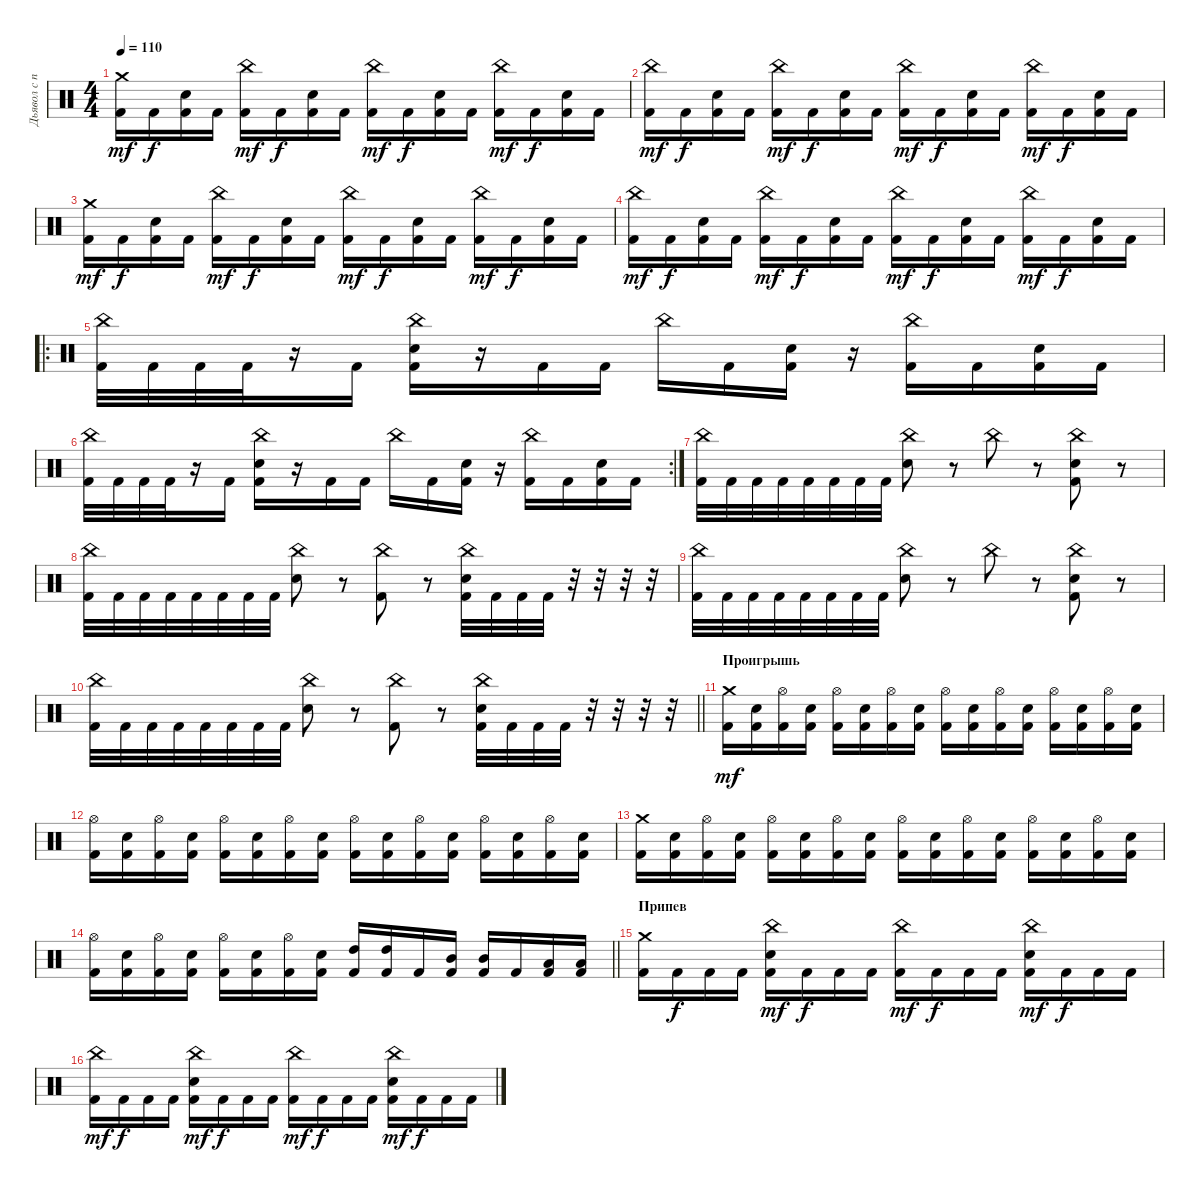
\track ("Дьявол с палками" "Дьявол с п") {instrument percussion}
\staff {score}
\articulation defaults
\ts (4 4)
\tempo 110
\clef neutral
\ks c
("Kick (hit) 2" "Crash medium (hit)").16{dy mf} "Kick (hit) 2".16{dy f} ("Kick (hit) 2" "Snare (hit) 2").16 "Kick (hit) 2".16 ("Kick (hit) 2" "China (hit)").16{dy mf} "Kick (hit) 2".16{dy f} ("Kick (hit) 2" "Snare (hit) 2").16 "Kick (hit) 2".16 ("Kick (hit) 2" "China (hit)").16{dy mf} "Kick (hit) 2".16{dy f} ("Kick (hit) 2" "Snare (hit) 2").16 "Kick (hit) 2".16 ("Kick (hit) 2" "China (hit)").16{dy mf} "Kick (hit) 2".16{dy f} ("Kick (hit) 2" "Snare (hit) 2").16 "Kick (hit) 2".16 |
("Kick (hit) 2" "China (hit)").16{dy mf} "Kick (hit) 2".16{dy f} ("Kick (hit) 2" "Snare (hit) 2").16 "Kick (hit) 2".16 ("Kick (hit) 2" "China (hit)").16{dy mf} "Kick (hit) 2".16{dy f} ("Kick (hit) 2" "Snare (hit) 2").16 "Kick (hit) 2".16 ("Kick (hit) 2" "China (hit)").16{dy mf} "Kick (hit) 2".16{dy f} ("Kick (hit) 2" "Snare (hit) 2").16 "Kick (hit) 2".16 ("Kick (hit) 2" "China (hit)").16{dy mf} "Kick (hit) 2".16{dy f} ("Kick (hit) 2" "Snare (hit) 2").16 "Kick (hit) 2".16 |
("Kick (hit) 2" "Crash medium (hit)").16{dy mf} "Kick (hit) 2".16{dy f} ("Kick (hit) 2" "Snare (hit) 2").16 "Kick (hit) 2".16 ("Kick (hit) 2" "China (hit)").16{dy mf} "Kick (hit) 2".16{dy f} ("Kick (hit) 2" "Snare (hit) 2").16 "Kick (hit) 2".16 ("Kick (hit) 2" "China (hit)").16{dy mf} "Kick (hit) 2".16{dy f} ("Kick (hit) 2" "Snare (hit) 2").16 "Kick (hit) 2".16 ("Kick (hit) 2" "China (hit)").16{dy mf} "Kick (hit) 2".16{dy f} ("Kick (hit) 2" "Snare (hit) 2").16 "Kick (hit) 2".16 |
("Kick (hit) 2" "China (hit)").16{dy mf} "Kick (hit) 2".16{dy f} ("Kick (hit) 2" "Snare (hit) 2").16 "Kick (hit) 2".16 ("Kick (hit) 2" "China (hit)").16{dy mf} "Kick (hit) 2".16{dy f} ("Kick (hit) 2" "Snare (hit) 2").16 "Kick (hit) 2".16 ("Kick (hit) 2" "China (hit)").16{dy mf} "Kick (hit) 2".16{dy f} ("Kick (hit) 2" "Snare (hit) 2").16 "Kick (hit) 2".16 ("Kick (hit) 2" "China (hit)").16{dy mf} "Kick (hit) 2".16{dy f} ("Kick (hit) 2" "Snare (hit) 2").16 "Kick (hit) 2".16 |
\ro
("Kick (hit) 2" "China (hit)").32 "Kick (hit) 2".32 "Kick (hit) 2".32 "Kick (hit) 2".32 r.16 "Kick (hit) 2".16 ("Kick (hit) 2" "Snare (hit) 2" "China (hit)").16 r.16 "Kick (hit) 2".16 "Kick (hit) 2".16 "China (hit)".16 "Kick (hit) 2".16 ("Kick (hit) 2" "Snare (hit) 2").16 r.16 ("Kick (hit) 2" "China (hit)").16 "Kick (hit) 2".16 ("Kick (hit) 2" "Snare (hit) 2").16 "Kick (hit) 2".16 |
\rc 2
("Kick (hit) 2" "China (hit)").32 "Kick (hit) 2".32 "Kick (hit) 2".32 "Kick (hit) 2".32 r.16 "Kick (hit) 2".16 ("Kick (hit) 2" "Snare (hit) 2" "China (hit)").16 r.16 "Kick (hit) 2".16 "Kick (hit) 2".16 "China (hit)".16 "Kick (hit) 2".16 ("Kick (hit) 2" "Snare (hit) 2").16 r.16 ("Kick (hit) 2" "China (hit)").16 "Kick (hit) 2".16 ("Kick (hit) 2" "Snare (hit) 2").16 "Kick (hit) 2".16 |
("Kick (hit) 2" "China (hit)").32 "Kick (hit) 2".32 "Kick (hit) 2".32 "Kick (hit) 2".32 "Kick (hit) 2".32 "Kick (hit) 2".32 "Kick (hit) 2".32 "Kick (hit) 2".32 ("Snare (hit) 2" "China (hit)").8 r.8 "China (hit)".8 r.8 ("Kick (hit) 2" "China (hit)" "Snare (hit) 2").8 r.8 |
("Kick (hit) 2" "China (hit)").32 "Kick (hit) 2".32 "Kick (hit) 2".32 "Kick (hit) 2".32 "Kick (hit) 2".32 "Kick (hit) 2".32 "Kick (hit) 2".32 "Kick (hit) 2".32 ("Snare (hit) 2" "China (hit)").8 r.8 ("China (hit)" "Kick (hit) 2").8 r.8 ("Kick (hit) 2" "China (hit)" "Snare (hit) 2").32 "Kick (hit) 2".32 "Kick (hit) 2".32 "Kick (hit) 2".32 r.32 r.32 r.32 r.32 |
("Kick (hit) 2" "China (hit)").32 "Kick (hit) 2".32 "Kick (hit) 2".32 "Kick (hit) 2".32 "Kick (hit) 2".32 "Kick (hit) 2".32 "Kick (hit) 2".32 "Kick (hit) 2".32 ("Snare (hit) 2" "China (hit)").8 r.8 "China (hit)".8 r.8 ("Kick (hit) 2" "China (hit)" "Snare (hit) 2").8 r.8 |
\barLineRight lightlight
("Kick (hit) 2" "China (hit)").32 "Kick (hit) 2".32 "Kick (hit) 2".32 "Kick (hit) 2".32 "Kick (hit) 2".32 "Kick (hit) 2".32 "Kick (hit) 2".32 "Kick (hit) 2".32 ("Snare (hit) 2" "China (hit)").8 r.8 ("China (hit)" "Kick (hit) 2").8 r.8 ("Kick (hit) 2" "China (hit)" "Snare (hit) 2").32 "Kick (hit) 2".32 "Kick (hit) 2".32 "Kick (hit) 2".32 r.32 r.32 r.32 r.32 |
\section ("" "Проигрышь")
("Kick (hit) 2" "Crash medium (hit)").16{dy mf} ("Kick (hit) 2" "Snare (hit) 2").16 ("Kick (hit) 2" "Hi-Hat (open)").16 ("Kick (hit) 2" "Snare (hit) 2").16 ("Kick (hit) 2" "Hi-Hat (open)").16 ("Kick (hit) 2" "Snare (hit) 2").16 ("Kick (hit) 2" "Hi-Hat (open)").16 ("Kick (hit) 2" "Snare (hit) 2").16 ("Kick (hit) 2" "Hi-Hat (open)").16 ("Kick (hit) 2" "Snare (hit) 2").16 ("Kick (hit) 2" "Hi-Hat (open)").16 ("Kick (hit) 2" "Snare (hit) 2").16 ("Kick (hit) 2" "Hi-Hat (open)").16 ("Kick (hit) 2" "Snare (hit) 2").16 ("Kick (hit) 2" "Hi-Hat (open)").16 ("Kick (hit) 2" "Snare (hit) 2").16 |
("Kick (hit) 2" "Hi-Hat (open)").16 ("Kick (hit) 2" "Snare (hit) 2").16 ("Kick (hit) 2" "Hi-Hat (open)").16 ("Kick (hit) 2" "Snare (hit) 2").16 ("Kick (hit) 2" "Hi-Hat (open)").16 ("Kick (hit) 2" "Snare (hit) 2").16 ("Kick (hit) 2" "Hi-Hat (open)").16 ("Kick (hit) 2" "Snare (hit) 2").16 ("Kick (hit) 2" "Hi-Hat (open)").16 ("Kick (hit) 2" "Snare (hit) 2").16 ("Kick (hit) 2" "Hi-Hat (open)").16 ("Kick (hit) 2" "Snare (hit) 2").16 ("Kick (hit) 2" "Hi-Hat (open)").16 ("Kick (hit) 2" "Snare (hit) 2").16 ("Kick (hit) 2" "Hi-Hat (open)").16 ("Kick (hit) 2" "Snare (hit) 2").16 |
("Kick (hit) 2" "Crash medium (hit)").16 ("Kick (hit) 2" "Snare (hit) 2").16 ("Kick (hit) 2" "Hi-Hat (open)").16 ("Kick (hit) 2" "Snare (hit) 2").16 ("Kick (hit) 2" "Hi-Hat (open)").16 ("Kick (hit) 2" "Snare (hit) 2").16 ("Kick (hit) 2" "Hi-Hat (open)").16 ("Kick (hit) 2" "Snare (hit) 2").16 ("Kick (hit) 2" "Hi-Hat (open)").16 ("Kick (hit) 2" "Snare (hit) 2").16 ("Kick (hit) 2" "Hi-Hat (open)").16 ("Kick (hit) 2" "Snare (hit) 2").16 ("Kick (hit) 2" "Hi-Hat (open)").16 ("Kick (hit) 2" "Snare (hit) 2").16 ("Kick (hit) 2" "Hi-Hat (open)").16 ("Kick (hit) 2" "Snare (hit) 2").16 |
\barLineRight lightlight
("Kick (hit) 2" "Hi-Hat (open)").16 ("Kick (hit) 2" "Snare (hit) 2").16 ("Kick (hit) 2" "Hi-Hat (open)").16 ("Kick (hit) 2" "Snare (hit) 2").16 ("Kick (hit) 2" "Hi-Hat (open)").16 ("Kick (hit) 2" "Snare (hit) 2").16 ("Kick (hit) 2" "Hi-Hat (open)").16 ("Kick (hit) 2" "Snare (hit) 2").16 ("Kick (hit) 2" "High Tom (hit)").16 ("Kick (hit) 2" "High Tom (hit)").16 "Kick (hit) 2".16 ("Kick (hit) 2" "Mid Tom (hit)").16 ("Kick (hit) 2" "Mid Tom (hit)").16 "Kick (hit) 2".16 ("Kick (hit) 2" "Low Tom (hit)").16 ("Kick (hit) 2" "Low Tom (hit)").16 |
\section ("" "Припев")
("Kick (hit) 2" "Crash medium (hit)").16 "Kick (hit) 2".16{dy f} "Kick (hit) 2".16 "Kick (hit) 2".16 ("Kick (hit) 2" "Snare (hit) 2" "China (hit)").16{dy mf} "Kick (hit) 2".16{dy f} "Kick (hit) 2".16 "Kick (hit) 2".16 ("Kick (hit) 2" "China (hit)").16{dy mf} "Kick (hit) 2".16{dy f} "Kick (hit) 2".16 "Kick (hit) 2".16 ("Kick (hit) 2" "Snare (hit) 2" "China (hit)").16{dy mf} "Kick (hit) 2".16{dy f} "Kick (hit) 2".16 "Kick (hit) 2".16 |
("Kick (hit) 2" "China (hit)").16{dy mf} "Kick (hit) 2".16{dy f} "Kick (hit) 2".16 "Kick (hit) 2".16 ("Kick (hit) 2" "Snare (hit) 2" "China (hit)").16{dy mf} "Kick (hit) 2".16{dy f} "Kick (hit) 2".16 "Kick (hit) 2".16 ("Kick (hit) 2" "China (hit)").16{dy mf} "Kick (hit) 2".16{dy f} "Kick (hit) 2".16 "Kick (hit) 2".16 ("Kick (hit) 2" "Snare (hit) 2" "China (hit)").16{dy mf} "Kick (hit) 2".16{dy f} "Kick (hit) 2".16 "Kick (hit) 2".16
